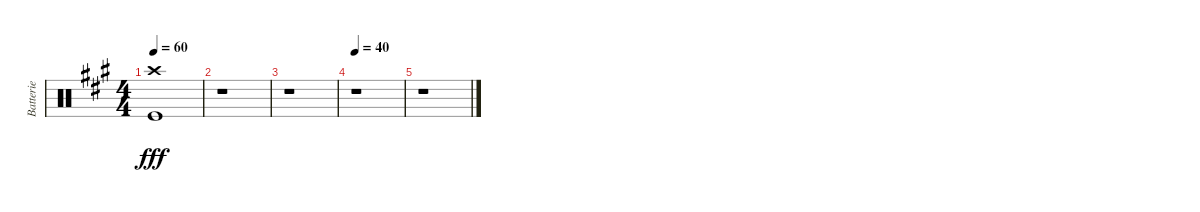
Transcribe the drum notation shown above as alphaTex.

\track ("Batterie" "Batterie") {instrument percussion}
\staff {score}
\articulation defaults
\ts (4 4)
\tempo 60
\clef neutral
\ks a
("Crash high (hit)" "Kick (hit)").1{dy fff} |
r.1 |
r.1 |
\tempo 40
r.1 |
r.1
